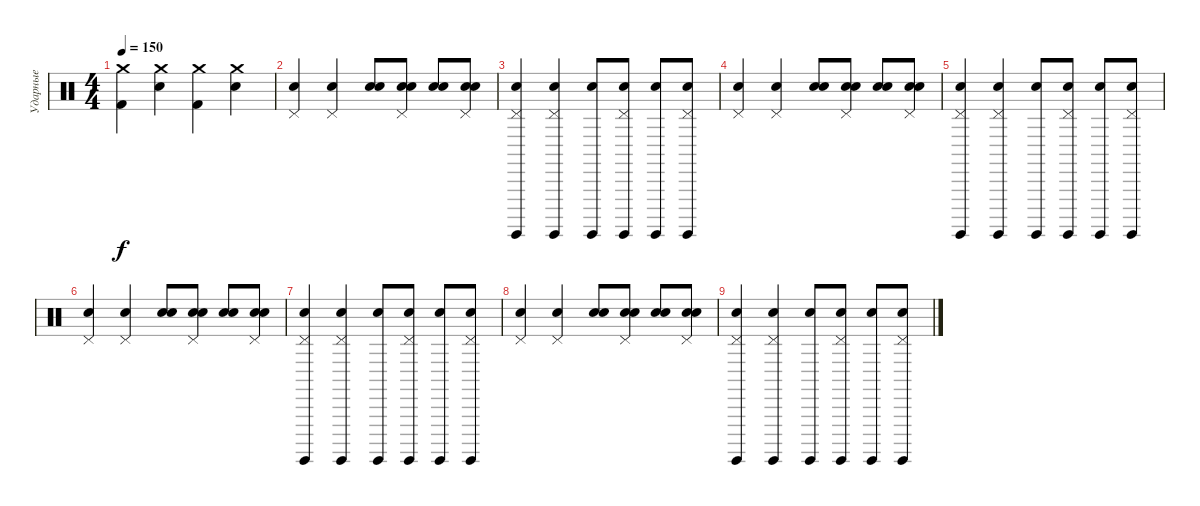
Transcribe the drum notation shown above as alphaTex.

\track ("Ударные" "Ударные") {instrument percussion}
\staff {score}
\articulation defaults
\ts (4 4)
\tempo 150
\clef neutral
\ks c
("Crash medium (hit)" "Kick (hit) 2").4{dy f} ("Crash medium (hit)" "Electric Snare (hit)").4 ("Crash medium (hit)" "Kick (hit) 2").4 ("Crash medium (hit)" "Electric Snare (hit)").4 |
("Pedal Hi-Hat (hit)" "Electric Snare (hit)").4 ("Pedal Hi-Hat (hit)" "Electric Snare (hit)").4 ("Hand Clap (hit)" "Hand Clap (hit)").8 ("Pedal Hi-Hat (hit)" "Hand Clap (hit)" "Hand Clap (hit)").8 ("Hand Clap (hit)" "Hand Clap (hit)").8 ("Pedal Hi-Hat (hit)" "Hand Clap (hit)" "Hand Clap (hit)").8 |
("Pedal Hi-Hat (hit)" "Electric Snare (hit)" "Surdo (hit)").4 ("Pedal Hi-Hat (hit)" "Electric Snare (hit)" "Surdo (hit)").4 ("Electric Snare (hit)" "Surdo (hit)").8 ("Pedal Hi-Hat (hit)" "Electric Snare (hit)" "Surdo (hit)").8 ("Electric Snare (hit)" "Surdo (hit)").8 ("Pedal Hi-Hat (hit)" "Electric Snare (hit)" "Surdo (hit)").8 |
("Pedal Hi-Hat (hit)" "Electric Snare (hit)").4 ("Pedal Hi-Hat (hit)" "Electric Snare (hit)").4 ("Hand Clap (hit)" "Hand Clap (hit)").8 ("Pedal Hi-Hat (hit)" "Hand Clap (hit)" "Hand Clap (hit)").8 ("Hand Clap (hit)" "Hand Clap (hit)").8 ("Pedal Hi-Hat (hit)" "Hand Clap (hit)" "Hand Clap (hit)").8 |
("Pedal Hi-Hat (hit)" "Electric Snare (hit)" "Surdo (hit)").4 ("Pedal Hi-Hat (hit)" "Electric Snare (hit)" "Surdo (hit)").4 ("Electric Snare (hit)" "Surdo (hit)").8 ("Pedal Hi-Hat (hit)" "Electric Snare (hit)" "Surdo (hit)").8 ("Electric Snare (hit)" "Surdo (hit)").8 ("Pedal Hi-Hat (hit)" "Electric Snare (hit)" "Surdo (hit)").8 |
("Pedal Hi-Hat (hit)" "Electric Snare (hit)").4 ("Pedal Hi-Hat (hit)" "Electric Snare (hit)").4 ("Hand Clap (hit)" "Hand Clap (hit)").8 ("Pedal Hi-Hat (hit)" "Hand Clap (hit)" "Hand Clap (hit)").8 ("Hand Clap (hit)" "Hand Clap (hit)").8 ("Pedal Hi-Hat (hit)" "Hand Clap (hit)" "Hand Clap (hit)").8 |
("Pedal Hi-Hat (hit)" "Electric Snare (hit)" "Surdo (hit)").4 ("Pedal Hi-Hat (hit)" "Electric Snare (hit)" "Surdo (hit)").4 ("Electric Snare (hit)" "Surdo (hit)").8 ("Pedal Hi-Hat (hit)" "Electric Snare (hit)" "Surdo (hit)").8 ("Electric Snare (hit)" "Surdo (hit)").8 ("Pedal Hi-Hat (hit)" "Electric Snare (hit)" "Surdo (hit)").8 |
("Pedal Hi-Hat (hit)" "Electric Snare (hit)").4 ("Pedal Hi-Hat (hit)" "Electric Snare (hit)").4 ("Hand Clap (hit)" "Hand Clap (hit)").8 ("Pedal Hi-Hat (hit)" "Hand Clap (hit)" "Hand Clap (hit)").8 ("Hand Clap (hit)" "Hand Clap (hit)").8 ("Pedal Hi-Hat (hit)" "Hand Clap (hit)" "Hand Clap (hit)").8 |
("Pedal Hi-Hat (hit)" "Electric Snare (hit)" "Surdo (hit)").4 ("Pedal Hi-Hat (hit)" "Electric Snare (hit)" "Surdo (hit)").4 ("Electric Snare (hit)" "Surdo (hit)").8 ("Pedal Hi-Hat (hit)" "Electric Snare (hit)" "Surdo (hit)").8 ("Electric Snare (hit)" "Surdo (hit)").8 ("Pedal Hi-Hat (hit)" "Electric Snare (hit)" "Surdo (hit)").8
